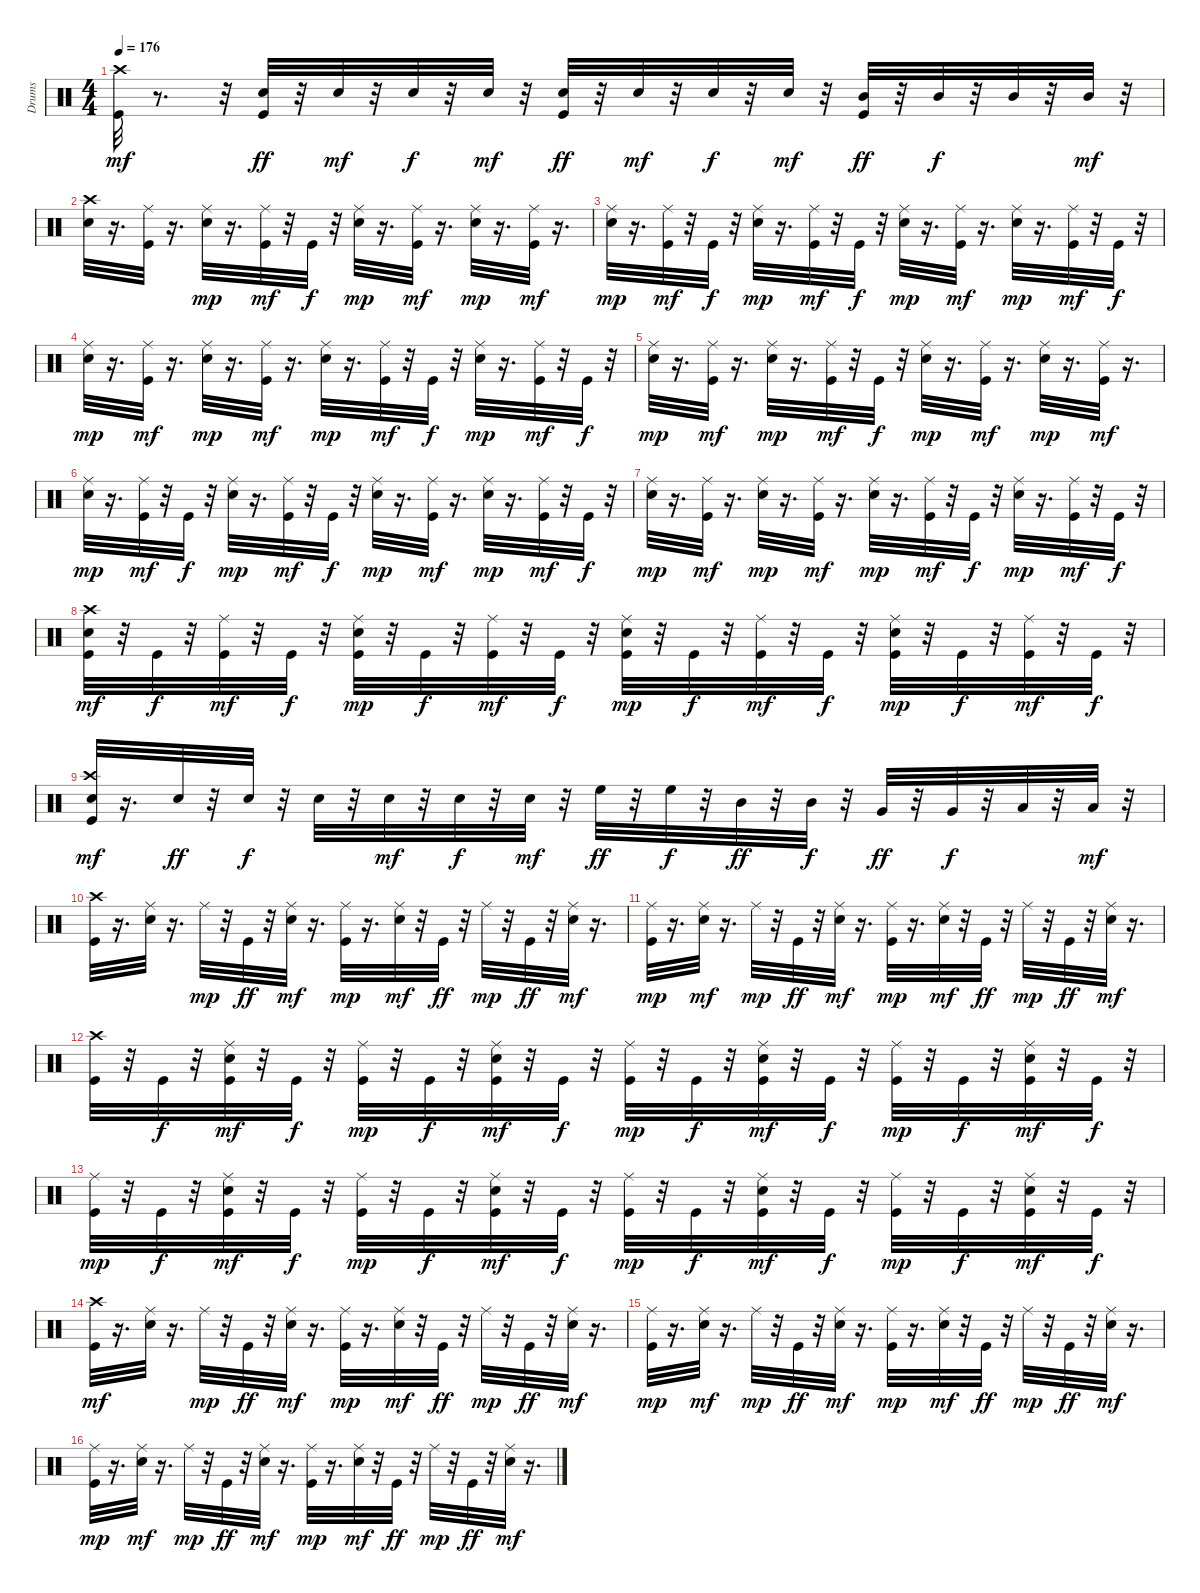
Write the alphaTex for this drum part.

\track ("Drums" "Drums") {instrument percussion}
\staff {score}
\articulation defaults
\ts (4 4)
\tempo 176
\clef neutral
\ks c
("Kick (hit)" "Crash high (hit)").32{dy mf} r.8{d} r.32 ("Kick (hit)" "Snare (hit) 2").32{dy ff} r.32 "Snare (hit) 2".32{dy mf} r.32 "Snare (hit) 2".32{dy f} r.32 "Snare (hit) 2".32{dy mf} r.32 ("Kick (hit)" "Snare (hit) 2").32{dy ff} r.32 "Snare (hit) 2".32{dy mf} r.32 "Snare (hit) 2".32{dy f} r.32 "Snare (hit) 2".32{dy mf} r.32 ("Kick (hit)" "Mid Tom (hit)").32{dy ff} r.32 "Mid Tom (hit)".32{dy f} r.32 "Mid Tom (hit)".32 r.32 "Mid Tom (hit)".32{dy mf} r.32 |
("Snare (hit) 2" "Crash high (hit)").32 r.16{d} ("Kick (hit)" "Ride (middle)").32 r.16{d} ("Snare (hit) 2" "Ride (middle)").32{dy mp} r.16{d} ("Kick (hit)" "Ride (middle)").32{dy mf} r.32 "Kick (hit)".32{dy f} r.32 ("Snare (hit) 2" "Ride (middle)").32{dy mp} r.16{d} ("Kick (hit)" "Ride (middle)").32{dy mf} r.16{d} ("Snare (hit) 2" "Ride (middle)").32{dy mp} r.16{d} ("Kick (hit)" "Ride (middle)").32{dy mf} r.16{d} |
("Snare (hit) 2" "Ride (middle)").32{dy mp} r.16{d} ("Kick (hit)" "Ride (middle)").32{dy mf} r.32 "Kick (hit)".32{dy f} r.32 ("Snare (hit) 2" "Ride (middle)").32{dy mp} r.16{d} ("Kick (hit)" "Ride (middle)").32{dy mf} r.32 "Kick (hit)".32{dy f} r.32 ("Snare (hit) 2" "Ride (middle)").32{dy mp} r.16{d} ("Kick (hit)" "Ride (middle)").32{dy mf} r.16{d} ("Snare (hit) 2" "Ride (middle)").32{dy mp} r.16{d} ("Kick (hit)" "Ride (middle)").32{dy mf} r.32 "Kick (hit)".32{dy f} r.32 |
("Snare (hit) 2" "Ride (middle)").32{dy mp} r.16{d} ("Kick (hit)" "Ride (middle)").32{dy mf} r.16{d} ("Snare (hit) 2" "Ride (middle)").32{dy mp} r.16{d} ("Kick (hit)" "Ride (middle)").32{dy mf} r.16{d} ("Snare (hit) 2" "Ride (middle)").32{dy mp} r.16{d} ("Kick (hit)" "Ride (middle)").32{dy mf} r.32 "Kick (hit)".32{dy f} r.32 ("Snare (hit) 2" "Ride (middle)").32{dy mp} r.16{d} ("Kick (hit)" "Ride (middle)").32{dy mf} r.32 "Kick (hit)".32{dy f} r.32 |
("Snare (hit) 2" "Ride (middle)").32{dy mp} r.16{d} ("Kick (hit)" "Ride (middle)").32{dy mf} r.16{d} ("Snare (hit) 2" "Ride (middle)").32{dy mp} r.16{d} ("Kick (hit)" "Ride (middle)").32{dy mf} r.32 "Kick (hit)".32{dy f} r.32 ("Snare (hit) 2" "Ride (middle)").32{dy mp} r.16{d} ("Kick (hit)" "Ride (middle)").32{dy mf} r.16{d} ("Snare (hit) 2" "Ride (middle)").32{dy mp} r.16{d} ("Kick (hit)" "Ride (middle)").32{dy mf} r.16{d} |
("Snare (hit) 2" "Ride (middle)").32{dy mp} r.16{d} ("Kick (hit)" "Ride (middle)").32{dy mf} r.32 "Kick (hit)".32{dy f} r.32 ("Snare (hit) 2" "Ride (middle)").32{dy mp} r.16{d} ("Kick (hit)" "Ride (middle)").32{dy mf} r.32 "Kick (hit)".32{dy f} r.32 ("Snare (hit) 2" "Ride (middle)").32{dy mp} r.16{d} ("Kick (hit)" "Ride (middle)").32{dy mf} r.16{d} ("Snare (hit) 2" "Ride (middle)").32{dy mp} r.16{d} ("Kick (hit)" "Ride (middle)").32{dy mf} r.32 "Kick (hit)".32{dy f} r.32 |
("Snare (hit) 2" "Ride (middle)").32{dy mp} r.16{d} ("Kick (hit)" "Ride (middle)").32{dy mf} r.16{d} ("Snare (hit) 2" "Ride (middle)").32{dy mp} r.16{d} ("Kick (hit)" "Ride (middle)").32{dy mf} r.16{d} ("Snare (hit) 2" "Ride (middle)").32{dy mp} r.16{d} ("Kick (hit)" "Ride (middle)").32{dy mf} r.32 "Kick (hit)".32{dy f} r.32 ("Snare (hit) 2" "Ride (middle)").32{dy mp} r.16{d} ("Kick (hit)" "Ride (middle)").32{dy mf} r.32 "Kick (hit)".32{dy f} r.32 |
("Kick (hit)" "Snare (hit) 2" "Crash high (hit)").32{dy mf} r.32 "Kick (hit)".32{dy f} r.32 ("Kick (hit)" "Ride (middle)").32{dy mf} r.32 "Kick (hit)".32{dy f} r.32 ("Kick (hit)" "Snare (hit) 2" "Ride (middle)").32{dy mp} r.32 "Kick (hit)".32{dy f} r.32 ("Kick (hit)" "Ride (middle)").32{dy mf} r.32 "Kick (hit)".32{dy f} r.32 ("Kick (hit)" "Snare (hit) 2" "Ride (middle)").32{dy mp} r.32 "Kick (hit)".32{dy f} r.32 ("Kick (hit)" "Ride (middle)").32{dy mf} r.32 "Kick (hit)".32{dy f} r.32 ("Kick (hit)" "Snare (hit) 2" "Ride (middle)").32{dy mp} r.32 "Kick (hit)".32{dy f} r.32 ("Kick (hit)" "Ride (middle)").32{dy mf} r.32 "Kick (hit)".32{dy f} r.32 |
("Kick (hit)" "Snare (hit) 2" "Crash high (hit)").32{dy mf} r.16{d} "Snare (hit) 2".32{dy ff} r.32 "Snare (hit) 2".32{dy f} r.32 "Snare (hit) 2".32 r.32 "Snare (hit) 2".32{dy mf} r.32 "Snare (hit) 2".32{dy f} r.32 "Snare (hit) 2".32{dy mf} r.32 "High Floor Tom (hit)".32{dy ff} r.32 "High Floor Tom (hit)".32{dy f} r.32 "Mid Tom (hit)".32{dy ff} r.32 "Mid Tom (hit)".32{dy f} r.32 "Very Low Tom (hit)".32{dy ff} r.32 "Very Low Tom (hit)".32{dy f} r.32 "Low Floor Tom (hit)".32 r.32 "Low Floor Tom (hit)".32{dy mf} r.32 |
("Kick (hit)" "Crash high (hit)").32 r.16{d} ("Snare (hit) 2" "Ride (middle)").32 r.16{d} "Ride (middle)".32{dy mp} r.32 "Kick (hit)".32{dy ff} r.32 ("Snare (hit) 2" "Ride (middle)").32{dy mf} r.16{d} ("Kick (hit)" "Ride (middle)").32{dy mp} r.16{d} ("Snare (hit) 2" "Ride (middle)").32{dy mf} r.32 "Kick (hit)".32{dy ff} r.32 "Ride (middle)".32{dy mp} r.32 "Kick (hit)".32{dy ff} r.32 ("Snare (hit) 2" "Ride (middle)").32{dy mf} r.16{d} |
("Kick (hit)" "Ride (middle)").32{dy mp} r.16{d} ("Snare (hit) 2" "Ride (middle)").32{dy mf} r.16{d} "Ride (middle)".32{dy mp} r.32 "Kick (hit)".32{dy ff} r.32 ("Snare (hit) 2" "Ride (middle)").32{dy mf} r.16{d} ("Kick (hit)" "Ride (middle)").32{dy mp} r.16{d} ("Snare (hit) 2" "Ride (middle)").32{dy mf} r.32 "Kick (hit)".32{dy ff} r.32 "Ride (middle)".32{dy mp} r.32 "Kick (hit)".32{dy ff} r.32 ("Snare (hit) 2" "Ride (middle)").32{dy mf} r.16{d} |
("Kick (hit)" "Crash high (hit)").32 r.32 "Kick (hit)".32{dy f} r.32 ("Kick (hit)" "Snare (hit) 2" "Ride (middle)").32{dy mf} r.32 "Kick (hit)".32{dy f} r.32 ("Kick (hit)" "Ride (middle)").32{dy mp} r.32 "Kick (hit)".32{dy f} r.32 ("Kick (hit)" "Snare (hit) 2" "Ride (middle)").32{dy mf} r.32 "Kick (hit)".32{dy f} r.32 ("Kick (hit)" "Ride (middle)").32{dy mp} r.32 "Kick (hit)".32{dy f} r.32 ("Kick (hit)" "Snare (hit) 2" "Ride (middle)").32{dy mf} r.32 "Kick (hit)".32{dy f} r.32 ("Kick (hit)" "Ride (middle)").32{dy mp} r.32 "Kick (hit)".32{dy f} r.32 ("Kick (hit)" "Snare (hit) 2" "Ride (middle)").32{dy mf} r.32 "Kick (hit)".32{dy f} r.32 |
("Kick (hit)" "Ride (middle)").32{dy mp} r.32 "Kick (hit)".32{dy f} r.32 ("Kick (hit)" "Snare (hit) 2" "Ride (middle)").32{dy mf} r.32 "Kick (hit)".32{dy f} r.32 ("Kick (hit)" "Ride (middle)").32{dy mp} r.32 "Kick (hit)".32{dy f} r.32 ("Kick (hit)" "Snare (hit) 2" "Ride (middle)").32{dy mf} r.32 "Kick (hit)".32{dy f} r.32 ("Kick (hit)" "Ride (middle)").32{dy mp} r.32 "Kick (hit)".32{dy f} r.32 ("Kick (hit)" "Snare (hit) 2" "Ride (middle)").32{dy mf} r.32 "Kick (hit)".32{dy f} r.32 ("Kick (hit)" "Ride (middle)").32{dy mp} r.32 "Kick (hit)".32{dy f} r.32 ("Kick (hit)" "Snare (hit) 2" "Ride (middle)").32{dy mf} r.32 "Kick (hit)".32{dy f} r.32 |
("Kick (hit)" "Crash high (hit)").32{dy mf} r.16{d} ("Snare (hit) 2" "Ride (middle)").32 r.16{d} "Ride (middle)".32{dy mp} r.32 "Kick (hit)".32{dy ff} r.32 ("Snare (hit) 2" "Ride (middle)").32{dy mf} r.16{d} ("Kick (hit)" "Ride (middle)").32{dy mp} r.16{d} ("Snare (hit) 2" "Ride (middle)").32{dy mf} r.32 "Kick (hit)".32{dy ff} r.32 "Ride (middle)".32{dy mp} r.32 "Kick (hit)".32{dy ff} r.32 ("Snare (hit) 2" "Ride (middle)").32{dy mf} r.16{d} |
("Kick (hit)" "Ride (middle)").32{dy mp} r.16{d} ("Snare (hit) 2" "Ride (middle)").32{dy mf} r.16{d} "Ride (middle)".32{dy mp} r.32 "Kick (hit)".32{dy ff} r.32 ("Snare (hit) 2" "Ride (middle)").32{dy mf} r.16{d} ("Kick (hit)" "Ride (middle)").32{dy mp} r.16{d} ("Snare (hit) 2" "Ride (middle)").32{dy mf} r.32 "Kick (hit)".32{dy ff} r.32 "Ride (middle)".32{dy mp} r.32 "Kick (hit)".32{dy ff} r.32 ("Snare (hit) 2" "Ride (middle)").32{dy mf} r.16{d} |
("Kick (hit)" "Ride (middle)").32{dy mp} r.16{d} ("Snare (hit) 2" "Ride (middle)").32{dy mf} r.16{d} "Ride (middle)".32{dy mp} r.32 "Kick (hit)".32{dy ff} r.32 ("Snare (hit) 2" "Ride (middle)").32{dy mf} r.16{d} ("Kick (hit)" "Ride (middle)").32{dy mp} r.16{d} ("Snare (hit) 2" "Ride (middle)").32{dy mf} r.32 "Kick (hit)".32{dy ff} r.32 "Ride (middle)".32{dy mp} r.32 "Kick (hit)".32{dy ff} r.32 ("Snare (hit) 2" "Ride (middle)").32{dy mf} r.16{d}
